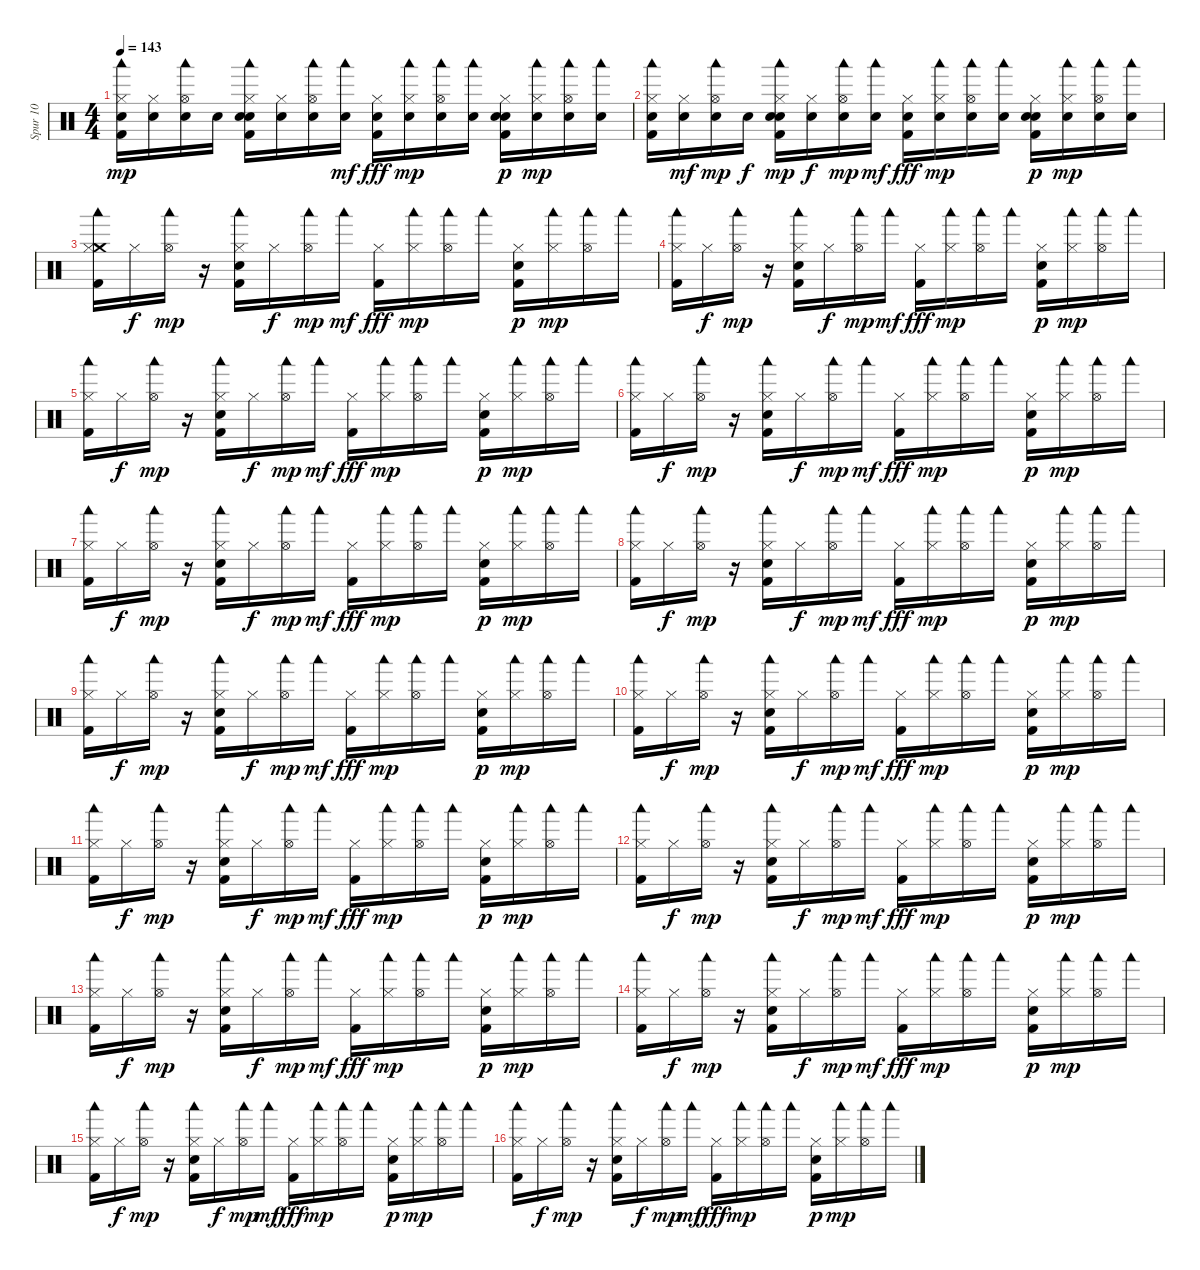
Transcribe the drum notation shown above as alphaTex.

\track ("Spur 10" "Spur 10") {instrument percussion}
\staff {score}
\articulation defaults
\ts (4 4)
\tempo 143
\clef neutral
\ks c
("Snare (hit) 2" "Kick (hit) 2" "Hi-Hat (closed)" "Woodblock low (hit)").16{dy mp} ("Snare (hit) 2" "Hi-Hat (closed)").16 ("Snare (hit) 2" "Hi-Hat (open)" "Woodblock low (hit)").16 "Snare (hit) 2".16 ("Snare (hit) 2" "Kick (hit) 2" "Hi-Hat (closed)" "Electric Snare (hit)" "Woodblock low (hit)").16 ("Snare (hit) 2" "Hi-Hat (closed)").16 ("Snare (hit) 2" "Hi-Hat (open)" "Woodblock low (hit)").16 ("Snare (hit) 2" "Woodblock low (hit)").16{dy mf} ("Snare (hit) 2" "Kick (hit) 2" "Hi-Hat (closed)").16{dy fff} ("Snare (hit) 2" "Hi-Hat (closed)" "Woodblock low (hit)").16{dy mp} ("Snare (hit) 2" "Hi-Hat (open)" "Woodblock low (hit)").16 ("Snare (hit) 2" "Woodblock low (hit)").16 ("Snare (hit) 2" "Kick (hit) 2" "Hi-Hat (closed)" "Electric Snare (hit)").16{dy p} ("Snare (hit) 2" "Hi-Hat (closed)" "Woodblock low (hit)").16{dy mp} ("Snare (hit) 2" "Hi-Hat (open)" "Woodblock low (hit)").16 ("Snare (hit) 2" "Woodblock low (hit)").16 |
("Snare (hit) 2" "Kick (hit) 2" "Hi-Hat (closed)" "Woodblock low (hit)").16 ("Snare (hit) 2" "Hi-Hat (closed)").16{dy mf} ("Snare (hit) 2" "Hi-Hat (open)" "Woodblock low (hit)").16{dy mp} "Snare (hit) 2".16{dy f} ("Snare (hit) 2" "Kick (hit) 2" "Hi-Hat (closed)" "Electric Snare (hit)" "Woodblock low (hit)").16{dy mp} ("Snare (hit) 2" "Hi-Hat (closed)").16{dy f} ("Snare (hit) 2" "Hi-Hat (open)" "Woodblock low (hit)").16{dy mp} ("Snare (hit) 2" "Woodblock low (hit)").16{dy mf} ("Snare (hit) 2" "Kick (hit) 2" "Hi-Hat (closed)").16{dy fff} ("Snare (hit) 2" "Hi-Hat (closed)" "Woodblock low (hit)").16{dy mp} ("Snare (hit) 2" "Hi-Hat (open)" "Woodblock low (hit)").16 ("Snare (hit) 2" "Woodblock low (hit)").16 ("Snare (hit) 2" "Kick (hit) 2" "Hi-Hat (closed)" "Electric Snare (hit)").16{dy p} ("Snare (hit) 2" "Hi-Hat (closed)" "Woodblock low (hit)").16{dy mp} ("Snare (hit) 2" "Hi-Hat (open)" "Woodblock low (hit)").16 ("Snare (hit) 2" "Woodblock low (hit)").16 |
("Crash medium (hit)" "Hi-Hat (closed)" "Kick (hit) 2" "Woodblock low (hit)").16 "Hi-Hat (closed)".16{dy f} ("Hi-Hat (open)" "Woodblock low (hit)").16{dy mp} r.16 ("Hi-Hat (closed)" "Kick (hit) 2" "Electric Snare (hit)" "Woodblock low (hit)").16 "Hi-Hat (closed)".16{dy f} ("Hi-Hat (open)" "Woodblock low (hit)").16{dy mp} "Woodblock low (hit)".16{dy mf} ("Hi-Hat (closed)" "Kick (hit) 2").16{dy fff} ("Hi-Hat (closed)" "Woodblock low (hit)").16{dy mp} ("Hi-Hat (open)" "Woodblock low (hit)").16 "Woodblock low (hit)".16 ("Hi-Hat (closed)" "Kick (hit) 2" "Electric Snare (hit)").16{dy p} ("Hi-Hat (closed)" "Woodblock low (hit)").16{dy mp} ("Hi-Hat (open)" "Woodblock low (hit)").16 "Woodblock low (hit)".16 |
("Hi-Hat (closed)" "Kick (hit) 2" "Woodblock low (hit)").16 "Hi-Hat (closed)".16{dy f} ("Hi-Hat (open)" "Woodblock low (hit)").16{dy mp} r.16 ("Hi-Hat (closed)" "Kick (hit) 2" "Electric Snare (hit)" "Woodblock low (hit)").16 "Hi-Hat (closed)".16{dy f} ("Hi-Hat (open)" "Woodblock low (hit)").16{dy mp} "Woodblock low (hit)".16{dy mf} ("Hi-Hat (closed)" "Kick (hit) 2").16{dy fff} ("Hi-Hat (closed)" "Woodblock low (hit)").16{dy mp} ("Hi-Hat (open)" "Woodblock low (hit)").16 "Woodblock low (hit)".16 ("Hi-Hat (closed)" "Kick (hit) 2" "Electric Snare (hit)").16{dy p} ("Hi-Hat (closed)" "Woodblock low (hit)").16{dy mp} ("Hi-Hat (open)" "Woodblock low (hit)").16 "Woodblock low (hit)".16 |
("Hi-Hat (closed)" "Kick (hit) 2" "Woodblock low (hit)").16 "Hi-Hat (closed)".16{dy f} ("Hi-Hat (open)" "Woodblock low (hit)").16{dy mp} r.16 ("Hi-Hat (closed)" "Kick (hit) 2" "Electric Snare (hit)" "Woodblock low (hit)").16 "Hi-Hat (closed)".16{dy f} ("Hi-Hat (open)" "Woodblock low (hit)").16{dy mp} "Woodblock low (hit)".16{dy mf} ("Hi-Hat (closed)" "Kick (hit) 2").16{dy fff} ("Hi-Hat (closed)" "Woodblock low (hit)").16{dy mp} ("Hi-Hat (open)" "Woodblock low (hit)").16 "Woodblock low (hit)".16 ("Hi-Hat (closed)" "Kick (hit) 2" "Electric Snare (hit)").16{dy p} ("Hi-Hat (closed)" "Woodblock low (hit)").16{dy mp} ("Hi-Hat (open)" "Woodblock low (hit)").16 "Woodblock low (hit)".16 |
("Hi-Hat (closed)" "Kick (hit) 2" "Woodblock low (hit)").16 "Hi-Hat (closed)".16{dy f} ("Hi-Hat (open)" "Woodblock low (hit)").16{dy mp} r.16 ("Hi-Hat (closed)" "Kick (hit) 2" "Electric Snare (hit)" "Woodblock low (hit)").16 "Hi-Hat (closed)".16{dy f} ("Hi-Hat (open)" "Woodblock low (hit)").16{dy mp} "Woodblock low (hit)".16{dy mf} ("Hi-Hat (closed)" "Kick (hit) 2").16{dy fff} ("Hi-Hat (closed)" "Woodblock low (hit)").16{dy mp} ("Hi-Hat (open)" "Woodblock low (hit)").16 "Woodblock low (hit)".16 ("Hi-Hat (closed)" "Kick (hit) 2" "Electric Snare (hit)").16{dy p} ("Hi-Hat (closed)" "Woodblock low (hit)").16{dy mp} ("Hi-Hat (open)" "Woodblock low (hit)").16 "Woodblock low (hit)".16 |
("Kick (hit) 2" "Hi-Hat (closed)" "Woodblock low (hit)").16 "Hi-Hat (closed)".16{dy f} ("Hi-Hat (open)" "Woodblock low (hit)").16{dy mp} r.16 ("Kick (hit) 2" "Hi-Hat (closed)" "Electric Snare (hit)" "Woodblock low (hit)").16 "Hi-Hat (closed)".16{dy f} ("Hi-Hat (open)" "Woodblock low (hit)").16{dy mp} "Woodblock low (hit)".16{dy mf} ("Kick (hit) 2" "Hi-Hat (closed)").16{dy fff} ("Hi-Hat (closed)" "Woodblock low (hit)").16{dy mp} ("Hi-Hat (open)" "Woodblock low (hit)").16 "Woodblock low (hit)".16 ("Kick (hit) 2" "Hi-Hat (closed)" "Electric Snare (hit)").16{dy p} ("Hi-Hat (closed)" "Woodblock low (hit)").16{dy mp} ("Hi-Hat (open)" "Woodblock low (hit)").16 "Woodblock low (hit)".16 |
("Hi-Hat (closed)" "Kick (hit) 2" "Woodblock low (hit)").16 "Hi-Hat (closed)".16{dy f} ("Hi-Hat (open)" "Woodblock low (hit)").16{dy mp} r.16 ("Hi-Hat (closed)" "Kick (hit) 2" "Electric Snare (hit)" "Woodblock low (hit)").16 "Hi-Hat (closed)".16{dy f} ("Hi-Hat (open)" "Woodblock low (hit)").16{dy mp} "Woodblock low (hit)".16{dy mf} ("Hi-Hat (closed)" "Kick (hit) 2").16{dy fff} ("Hi-Hat (closed)" "Woodblock low (hit)").16{dy mp} ("Hi-Hat (open)" "Woodblock low (hit)").16 "Woodblock low (hit)".16 ("Hi-Hat (closed)" "Kick (hit) 2" "Electric Snare (hit)").16{dy p} ("Hi-Hat (closed)" "Woodblock low (hit)").16{dy mp} ("Hi-Hat (open)" "Woodblock low (hit)").16 "Woodblock low (hit)".16 |
("Hi-Hat (closed)" "Kick (hit) 2" "Woodblock low (hit)").16 "Hi-Hat (closed)".16{dy f} ("Hi-Hat (open)" "Woodblock low (hit)").16{dy mp} r.16 ("Hi-Hat (closed)" "Kick (hit) 2" "Electric Snare (hit)" "Woodblock low (hit)").16 "Hi-Hat (closed)".16{dy f} ("Hi-Hat (open)" "Woodblock low (hit)").16{dy mp} "Woodblock low (hit)".16{dy mf} ("Hi-Hat (closed)" "Kick (hit) 2").16{dy fff} ("Hi-Hat (closed)" "Woodblock low (hit)").16{dy mp} ("Hi-Hat (open)" "Woodblock low (hit)").16 "Woodblock low (hit)".16 ("Hi-Hat (closed)" "Kick (hit) 2" "Electric Snare (hit)").16{dy p} ("Hi-Hat (closed)" "Woodblock low (hit)").16{dy mp} ("Hi-Hat (open)" "Woodblock low (hit)").16 "Woodblock low (hit)".16 |
("Kick (hit) 2" "Hi-Hat (closed)" "Woodblock low (hit)").16 "Hi-Hat (closed)".16{dy f} ("Hi-Hat (open)" "Woodblock low (hit)").16{dy mp} r.16 ("Kick (hit) 2" "Hi-Hat (closed)" "Electric Snare (hit)" "Woodblock low (hit)").16 "Hi-Hat (closed)".16{dy f} ("Hi-Hat (open)" "Woodblock low (hit)").16{dy mp} "Woodblock low (hit)".16{dy mf} ("Kick (hit) 2" "Hi-Hat (closed)").16{dy fff} ("Hi-Hat (closed)" "Woodblock low (hit)").16{dy mp} ("Hi-Hat (open)" "Woodblock low (hit)").16 "Woodblock low (hit)".16 ("Kick (hit) 2" "Hi-Hat (closed)" "Electric Snare (hit)").16{dy p} ("Hi-Hat (closed)" "Woodblock low (hit)").16{dy mp} ("Hi-Hat (open)" "Woodblock low (hit)").16 "Woodblock low (hit)".16 |
("Hi-Hat (closed)" "Kick (hit) 2" "Woodblock low (hit)").16 "Hi-Hat (closed)".16{dy f} ("Hi-Hat (open)" "Woodblock low (hit)").16{dy mp} r.16 ("Hi-Hat (closed)" "Kick (hit) 2" "Electric Snare (hit)" "Woodblock low (hit)").16 "Hi-Hat (closed)".16{dy f} ("Hi-Hat (open)" "Woodblock low (hit)").16{dy mp} "Woodblock low (hit)".16{dy mf} ("Hi-Hat (closed)" "Kick (hit) 2").16{dy fff} ("Hi-Hat (closed)" "Woodblock low (hit)").16{dy mp} ("Hi-Hat (open)" "Woodblock low (hit)").16 "Woodblock low (hit)".16 ("Hi-Hat (closed)" "Kick (hit) 2" "Electric Snare (hit)").16{dy p} ("Hi-Hat (closed)" "Woodblock low (hit)").16{dy mp} ("Hi-Hat (open)" "Woodblock low (hit)").16 "Woodblock low (hit)".16 |
("Hi-Hat (closed)" "Kick (hit) 2" "Woodblock low (hit)").16 "Hi-Hat (closed)".16{dy f} ("Hi-Hat (open)" "Woodblock low (hit)").16{dy mp} r.16 ("Hi-Hat (closed)" "Kick (hit) 2" "Electric Snare (hit)" "Woodblock low (hit)").16 "Hi-Hat (closed)".16{dy f} ("Hi-Hat (open)" "Woodblock low (hit)").16{dy mp} "Woodblock low (hit)".16{dy mf} ("Hi-Hat (closed)" "Kick (hit) 2").16{dy fff} ("Hi-Hat (closed)" "Woodblock low (hit)").16{dy mp} ("Hi-Hat (open)" "Woodblock low (hit)").16 "Woodblock low (hit)".16 ("Hi-Hat (closed)" "Kick (hit) 2" "Electric Snare (hit)").16{dy p} ("Hi-Hat (closed)" "Woodblock low (hit)").16{dy mp} ("Hi-Hat (open)" "Woodblock low (hit)").16 "Woodblock low (hit)".16 |
("Hi-Hat (closed)" "Kick (hit) 2" "Woodblock low (hit)").16 "Hi-Hat (closed)".16{dy f} ("Hi-Hat (open)" "Woodblock low (hit)").16{dy mp} r.16 ("Hi-Hat (closed)" "Kick (hit) 2" "Electric Snare (hit)" "Woodblock low (hit)").16 "Hi-Hat (closed)".16{dy f} ("Hi-Hat (open)" "Woodblock low (hit)").16{dy mp} "Woodblock low (hit)".16{dy mf} ("Hi-Hat (closed)" "Kick (hit) 2").16{dy fff} ("Hi-Hat (closed)" "Woodblock low (hit)").16{dy mp} ("Hi-Hat (open)" "Woodblock low (hit)").16 "Woodblock low (hit)".16 ("Hi-Hat (closed)" "Kick (hit) 2" "Electric Snare (hit)").16{dy p} ("Hi-Hat (closed)" "Woodblock low (hit)").16{dy mp} ("Hi-Hat (open)" "Woodblock low (hit)").16 "Woodblock low (hit)".16 |
("Kick (hit) 2" "Hi-Hat (closed)" "Woodblock low (hit)").16 "Hi-Hat (closed)".16{dy f} ("Hi-Hat (open)" "Woodblock low (hit)").16{dy mp} r.16 ("Kick (hit) 2" "Hi-Hat (closed)" "Electric Snare (hit)" "Woodblock low (hit)").16 "Hi-Hat (closed)".16{dy f} ("Hi-Hat (open)" "Woodblock low (hit)").16{dy mp} "Woodblock low (hit)".16{dy mf} ("Kick (hit) 2" "Hi-Hat (closed)").16{dy fff} ("Hi-Hat (closed)" "Woodblock low (hit)").16{dy mp} ("Hi-Hat (open)" "Woodblock low (hit)").16 "Woodblock low (hit)".16 ("Kick (hit) 2" "Hi-Hat (closed)" "Electric Snare (hit)").16{dy p} ("Hi-Hat (closed)" "Woodblock low (hit)").16{dy mp} ("Hi-Hat (open)" "Woodblock low (hit)").16 "Woodblock low (hit)".16 |
("Hi-Hat (closed)" "Kick (hit) 2" "Woodblock low (hit)").16 "Hi-Hat (closed)".16{dy f} ("Hi-Hat (open)" "Woodblock low (hit)").16{dy mp} r.16 ("Hi-Hat (closed)" "Kick (hit) 2" "Electric Snare (hit)" "Woodblock low (hit)").16 "Hi-Hat (closed)".16{dy f} ("Hi-Hat (open)" "Woodblock low (hit)").16{dy mp} "Woodblock low (hit)".16{dy mf} ("Hi-Hat (closed)" "Kick (hit) 2").16{dy fff} ("Hi-Hat (closed)" "Woodblock low (hit)").16{dy mp} ("Hi-Hat (open)" "Woodblock low (hit)").16 "Woodblock low (hit)".16 ("Hi-Hat (closed)" "Kick (hit) 2" "Electric Snare (hit)").16{dy p} ("Hi-Hat (closed)" "Woodblock low (hit)").16{dy mp} ("Hi-Hat (open)" "Woodblock low (hit)").16 "Woodblock low (hit)".16 |
("Hi-Hat (closed)" "Kick (hit) 2" "Woodblock low (hit)").16 "Hi-Hat (closed)".16{dy f} ("Hi-Hat (open)" "Woodblock low (hit)").16{dy mp} r.16 ("Hi-Hat (closed)" "Kick (hit) 2" "Electric Snare (hit)" "Woodblock low (hit)").16 "Hi-Hat (closed)".16{dy f} ("Hi-Hat (open)" "Woodblock low (hit)").16{dy mp} "Woodblock low (hit)".16{dy mf} ("Hi-Hat (closed)" "Kick (hit) 2").16{dy fff} ("Hi-Hat (closed)" "Woodblock low (hit)").16{dy mp} ("Hi-Hat (open)" "Woodblock low (hit)").16 "Woodblock low (hit)".16 ("Hi-Hat (closed)" "Kick (hit) 2" "Electric Snare (hit)").16{dy p} ("Hi-Hat (closed)" "Woodblock low (hit)").16{dy mp} ("Hi-Hat (open)" "Woodblock low (hit)").16 "Woodblock low (hit)".16
